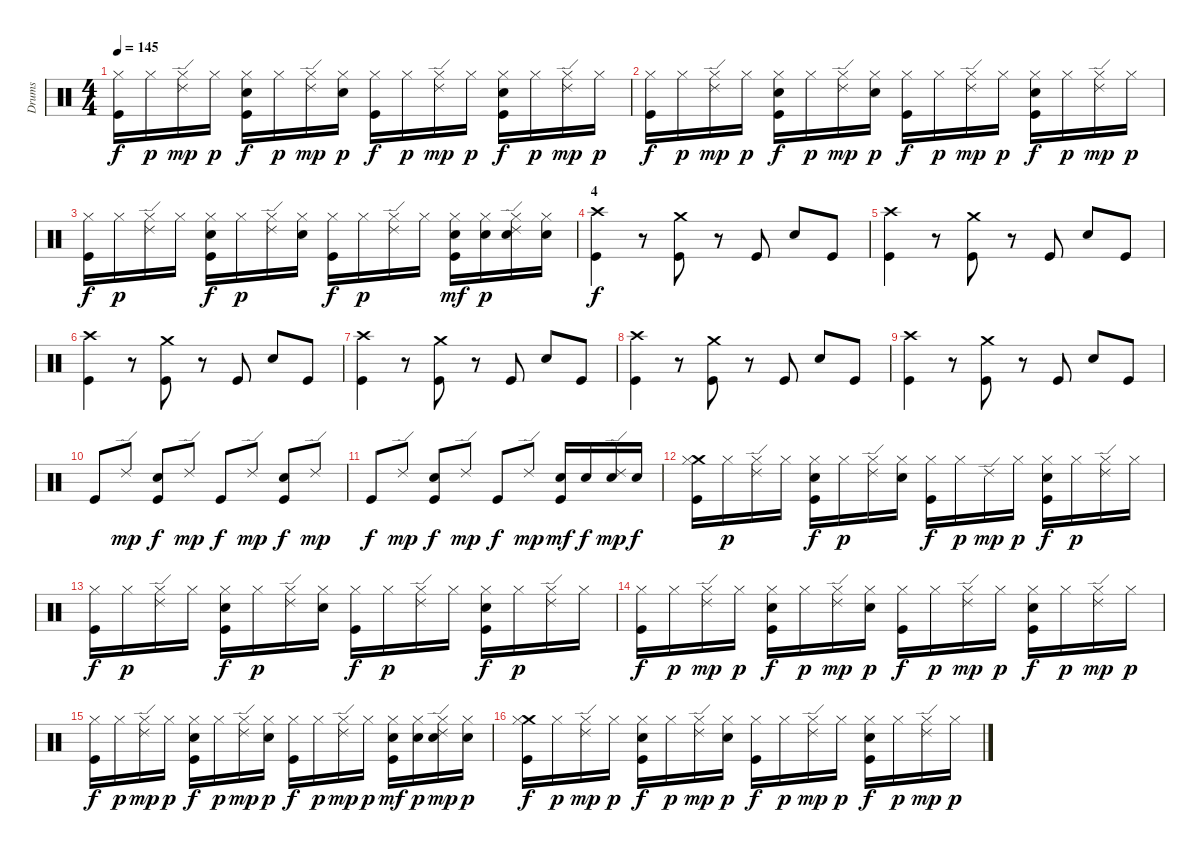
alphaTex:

\track ("Drums" "Drums") {instrument percussion}
\staff {score}
\articulation defaults
\ts (4 4)
\tempo 145
\clef neutral
\ks c
("Kick (hit)" "Hi-Hat (closed)").16{dy f} "Hi-Hat (closed)".16{dy p} ("Hi-Hat (closed)" "Ride (edge) 2").16{dy mp} "Hi-Hat (closed)".16{dy p} ("Electric Snare (hit)" "Kick (hit)" "Hi-Hat (closed)").16{dy f} "Hi-Hat (closed)".16{dy p} ("Hi-Hat (closed)" "Ride (edge) 2").16{dy mp} ("Electric Snare (hit)" "Hi-Hat (closed)").16{dy p} ("Kick (hit)" "Hi-Hat (closed)").16{dy f} "Hi-Hat (closed)".16{dy p} ("Hi-Hat (closed)" "Ride (edge) 2").16{dy mp} "Hi-Hat (closed)".16{dy p} ("Electric Snare (hit)" "Kick (hit)" "Hi-Hat (closed)").16{dy f} "Hi-Hat (closed)".16{dy p} ("Hi-Hat (closed)" "Ride (edge) 2").16{dy mp} "Hi-Hat (closed)".16{dy p} |
("Kick (hit)" "Hi-Hat (closed)").16{dy f} "Hi-Hat (closed)".16{dy p} ("Hi-Hat (closed)" "Ride (edge) 2").16{dy mp} "Hi-Hat (closed)".16{dy p} ("Electric Snare (hit)" "Kick (hit)" "Hi-Hat (closed)").16{dy f} "Hi-Hat (closed)".16{dy p} ("Hi-Hat (closed)" "Ride (edge) 2").16{dy mp} ("Electric Snare (hit)" "Hi-Hat (closed)").16{dy p} ("Kick (hit)" "Hi-Hat (closed)").16{dy f} "Hi-Hat (closed)".16{dy p} ("Hi-Hat (closed)" "Ride (edge) 2").16{dy mp} "Hi-Hat (closed)".16{dy p} ("Electric Snare (hit)" "Kick (hit)" "Hi-Hat (closed)").16{dy f} "Hi-Hat (closed)".16{dy p} ("Hi-Hat (closed)" "Ride (edge) 2").16{dy mp} "Hi-Hat (closed)".16{dy p} |
("Kick (hit)" "Hi-Hat (closed)").16{dy f} "Hi-Hat (closed)".16{dy p} ("Ride (edge) 2" "Hi-Hat (closed)").16 "Hi-Hat (closed)".16 ("Electric Snare (hit)" "Kick (hit)" "Hi-Hat (closed)").16{dy f} "Hi-Hat (closed)".16{dy p} ("Ride (edge) 2" "Hi-Hat (closed)").16 ("Electric Snare (hit)" "Hi-Hat (closed)").16 ("Kick (hit)" "Hi-Hat (closed)").16{dy f} "Hi-Hat (closed)".16{dy p} ("Ride (edge) 2" "Hi-Hat (closed)").16 "Hi-Hat (closed)".16 ("Electric Snare (hit)" "Kick (hit)" "Hi-Hat (closed)").16{dy mf} ("Electric Snare (hit)" "Hi-Hat (closed)").16{dy p} ("Electric Snare (hit)" "Ride (edge) 2" "Hi-Hat (closed)").16 ("Electric Snare (hit)" "Hi-Hat (closed)").16 |
\section ("" "4")
("Crash high (hit)" "Kick (hit)").4{dy f} r.8 ("Crash medium (hit)" "Kick (hit)").8 r.8 "Kick (hit)".8 "Electric Snare (hit)".8 "Kick (hit)".8 |
("Crash high (hit)" "Kick (hit)").4 r.8 ("Crash medium (hit)" "Kick (hit)").8 r.8 "Kick (hit)".8 "Electric Snare (hit)".8 "Kick (hit)".8 |
("Crash high (hit)" "Kick (hit)").4 r.8 ("Crash medium (hit)" "Kick (hit)").8 r.8 "Kick (hit)".8 "Electric Snare (hit)".8 "Kick (hit)".8 |
("Crash high (hit)" "Kick (hit)").4 r.8 ("Crash medium (hit)" "Kick (hit)").8 r.8 "Kick (hit)".8 "Electric Snare (hit)".8 "Kick (hit)".8 |
("Crash high (hit)" "Kick (hit)").4 r.8 ("Crash medium (hit)" "Kick (hit)").8 r.8 "Kick (hit)".8 "Electric Snare (hit)".8 "Kick (hit)".8 |
("Crash high (hit)" "Kick (hit)").4 r.8 ("Crash medium (hit)" "Kick (hit)").8 r.8 "Kick (hit)".8 "Electric Snare (hit)".8 "Kick (hit)".8 |
"Kick (hit)".8 "Ride (edge) 2".8{dy mp} ("Electric Snare (hit)" "Kick (hit)").8{dy f} "Ride (edge) 2".8{dy mp} "Kick (hit)".8{dy f} "Ride (edge) 2".8{dy mp} ("Electric Snare (hit)" "Kick (hit)").8{dy f} "Ride (edge) 2".8{dy mp} |
"Kick (hit)".8{dy f} "Ride (edge) 2".8{dy mp} ("Electric Snare (hit)" "Kick (hit)").8{dy f} "Ride (edge) 2".8{dy mp} "Kick (hit)".8{dy f} "Ride (edge) 2".8{dy mp} ("Electric Snare (hit)" "Kick (hit)").16{dy mf} "Electric Snare (hit)".16{dy f} ("Electric Snare (hit)" "Ride (edge) 2").16{dy mp} "Electric Snare (hit)".16{dy f} |
("Crash medium (hit)" "Kick (hit)" "Hi-Hat (closed)").16 "Hi-Hat (closed)".16{dy p} ("Ride (edge) 2" "Hi-Hat (closed)").16 "Hi-Hat (closed)".16 ("Electric Snare (hit)" "Kick (hit)" "Hi-Hat (closed)").16{dy f} "Hi-Hat (closed)".16{dy p} ("Ride (edge) 2" "Hi-Hat (closed)").16 ("Electric Snare (hit)" "Hi-Hat (closed)").16 ("Kick (hit)" "Hi-Hat (closed)").16{dy f} "Hi-Hat (closed)".16{dy p} "Ride (edge) 2".16{dy mp} "Hi-Hat (closed)".16{dy p} ("Electric Snare (hit)" "Kick (hit)" "Hi-Hat (closed)").16{dy f} "Hi-Hat (closed)".16{dy p} ("Ride (edge) 2" "Hi-Hat (closed)").16 "Hi-Hat (closed)".16 |
("Kick (hit)" "Hi-Hat (closed)").16{dy f} "Hi-Hat (closed)".16{dy p} ("Ride (edge) 2" "Hi-Hat (closed)").16 "Hi-Hat (closed)".16 ("Electric Snare (hit)" "Kick (hit)" "Hi-Hat (closed)").16{dy f} "Hi-Hat (closed)".16{dy p} ("Ride (edge) 2" "Hi-Hat (closed)").16 ("Electric Snare (hit)" "Hi-Hat (closed)").16 ("Kick (hit)" "Hi-Hat (closed)").16{dy f} "Hi-Hat (closed)".16{dy p} ("Ride (edge) 2" "Hi-Hat (closed)").16 "Hi-Hat (closed)".16 ("Electric Snare (hit)" "Kick (hit)" "Hi-Hat (closed)").16{dy f} "Hi-Hat (closed)".16{dy p} ("Ride (edge) 2" "Hi-Hat (closed)").16 "Hi-Hat (closed)".16 |
("Kick (hit)" "Hi-Hat (closed)").16{dy f} "Hi-Hat (closed)".16{dy p} ("Hi-Hat (closed)" "Ride (edge) 2").16{dy mp} "Hi-Hat (closed)".16{dy p} ("Electric Snare (hit)" "Kick (hit)" "Hi-Hat (closed)").16{dy f} "Hi-Hat (closed)".16{dy p} ("Hi-Hat (closed)" "Ride (edge) 2").16{dy mp} ("Electric Snare (hit)" "Hi-Hat (closed)").16{dy p} ("Kick (hit)" "Hi-Hat (closed)").16{dy f} "Hi-Hat (closed)".16{dy p} ("Hi-Hat (closed)" "Ride (edge) 2").16{dy mp} "Hi-Hat (closed)".16{dy p} ("Electric Snare (hit)" "Kick (hit)" "Hi-Hat (closed)").16{dy f} "Hi-Hat (closed)".16{dy p} ("Hi-Hat (closed)" "Ride (edge) 2").16{dy mp} "Hi-Hat (closed)".16{dy p} |
("Kick (hit)" "Hi-Hat (closed)").16{dy f} "Hi-Hat (closed)".16{dy p} ("Hi-Hat (closed)" "Ride (edge) 2").16{dy mp} "Hi-Hat (closed)".16{dy p} ("Electric Snare (hit)" "Kick (hit)" "Hi-Hat (closed)").16{dy f} "Hi-Hat (closed)".16{dy p} ("Hi-Hat (closed)" "Ride (edge) 2").16{dy mp} ("Electric Snare (hit)" "Hi-Hat (closed)").16{dy p} ("Kick (hit)" "Hi-Hat (closed)").16{dy f} "Hi-Hat (closed)".16{dy p} ("Hi-Hat (closed)" "Ride (edge) 2").16{dy mp} "Hi-Hat (closed)".16{dy p} ("Electric Snare (hit)" "Kick (hit)" "Hi-Hat (closed)").16{dy mf} ("Electric Snare (hit)" "Hi-Hat (closed)").16{dy p} ("Electric Snare (hit)" "Hi-Hat (closed)" "Ride (edge) 2").16{dy mp} ("Electric Snare (hit)" "Hi-Hat (closed)").16{dy p} |
("Crash medium (hit)" "Kick (hit)" "Hi-Hat (closed)").16{dy f} "Hi-Hat (closed)".16{dy p} ("Hi-Hat (closed)" "Ride (edge) 2").16{dy mp} "Hi-Hat (closed)".16{dy p} ("Electric Snare (hit)" "Kick (hit)" "Hi-Hat (closed)").16{dy f} "Hi-Hat (closed)".16{dy p} ("Hi-Hat (closed)" "Ride (edge) 2").16{dy mp} ("Electric Snare (hit)" "Hi-Hat (closed)").16{dy p} ("Kick (hit)" "Hi-Hat (closed)").16{dy f} "Hi-Hat (closed)".16{dy p} ("Hi-Hat (closed)" "Ride (edge) 2").16{dy mp} "Hi-Hat (closed)".16{dy p} ("Electric Snare (hit)" "Kick (hit)" "Hi-Hat (closed)").16{dy f} "Hi-Hat (closed)".16{dy p} ("Hi-Hat (closed)" "Ride (edge) 2").16{dy mp} "Hi-Hat (closed)".16{dy p}
